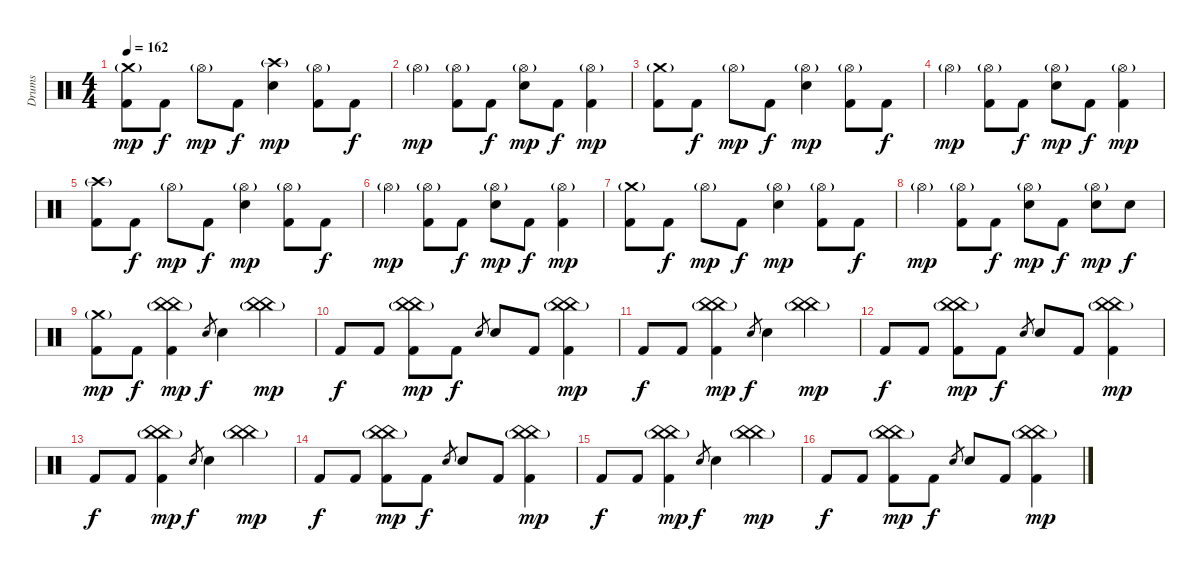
\track ("Drums" "Drums") {instrument percussion}
\staff {score}
\articulation defaults
\ts (4 4)
\tempo 162
\clef neutral
\ks c
("Crash medium (hit)"{g} "Kick (hit) 2").8{dy mp} "Kick (hit) 2".8{dy f} "Hi-Hat (open)"{g}.8{dy mp} "Kick (hit) 2".8{dy f} ("Crash high (hit)"{g} "Snare (hit) 2").4{dy mp} ("Hi-Hat (open)"{g} "Kick (hit) 2").8 "Kick (hit) 2".8{dy f} |
"Hi-Hat (open)"{g}.4{dy mp} ("Hi-Hat (open)"{g} "Kick (hit) 2").8 "Kick (hit) 2".8{dy f} ("Hi-Hat (open)"{g} "Snare (hit) 2").8{dy mp} "Kick (hit) 2".8{dy f} ("Hi-Hat (open)"{g} "Kick (hit) 2").4{dy mp} |
("Crash medium (hit)"{g} "Kick (hit) 2").8 "Kick (hit) 2".8{dy f} "Hi-Hat (open)"{g}.8{dy mp} "Kick (hit) 2".8{dy f} ("Hi-Hat (open)"{g} "Snare (hit) 2").4{dy mp} ("Hi-Hat (open)"{g} "Kick (hit) 2").8 "Kick (hit) 2".8{dy f} |
"Hi-Hat (open)"{g}.4{dy mp} ("Hi-Hat (open)"{g} "Kick (hit) 2").8 "Kick (hit) 2".8{dy f} ("Hi-Hat (open)"{g} "Snare (hit) 2").8{dy mp} "Kick (hit) 2".8{dy f} ("Hi-Hat (open)"{g} "Kick (hit) 2").4{dy mp} |
("Crash high (hit)"{g} "Kick (hit) 2").8 "Kick (hit) 2".8{dy f} "Hi-Hat (open)"{g}.8{dy mp} "Kick (hit) 2".8{dy f} ("Hi-Hat (open)"{g} "Snare (hit) 2").4{dy mp} ("Hi-Hat (open)"{g} "Kick (hit) 2").8 "Kick (hit) 2".8{dy f} |
"Hi-Hat (open)"{g}.4{dy mp} ("Hi-Hat (open)"{g} "Kick (hit) 2").8 "Kick (hit) 2".8{dy f} ("Hi-Hat (open)"{g} "Snare (hit) 2").8{dy mp} "Kick (hit) 2".8{dy f} ("Hi-Hat (open)"{g} "Kick (hit) 2").4{dy mp} |
("Crash medium (hit)"{g} "Kick (hit) 2").8 "Kick (hit) 2".8{dy f} "Hi-Hat (open)"{g}.8{dy mp} "Kick (hit) 2".8{dy f} ("Hi-Hat (open)"{g} "Snare (hit) 2").4{dy mp} ("Hi-Hat (open)"{g} "Kick (hit) 2").8 "Kick (hit) 2".8{dy f} |
"Hi-Hat (open)"{g}.4{dy mp} ("Hi-Hat (open)"{g} "Kick (hit) 2").8 "Kick (hit) 2".8{dy f} ("Hi-Hat (open)"{g} "Snare (hit) 2").8{dy mp} "Kick (hit) 2".8{dy f} ("Hi-Hat (open)"{g} "Snare (hit) 2").8{dy mp} "Snare (hit) 2".8{dy f} |
("Crash medium (hit)"{g} "Kick (hit) 2").8{dy mp} "Kick (hit) 2".8{dy f} ("China (hit)"{g} "China (hit)"{g} "Kick (hit) 2").4{dy mp} "Snare (hit) 2".8{gr dy f} "Snare (hit) 2".4 ("China (hit)"{g} "China (hit)"{g}).4{dy mp} |
"Kick (hit) 2".8{dy f} "Kick (hit) 2".8 ("China (hit)"{g} "China (hit)"{g} "Kick (hit) 2").8{dy mp} "Kick (hit) 2".8{dy f} "Snare (hit) 2".8{gr} "Snare (hit) 2".8 "Kick (hit) 2".8 ("China (hit)"{g} "China (hit)"{g} "Kick (hit) 2").4{dy mp} |
"Kick (hit) 2".8{dy f} "Kick (hit) 2".8 ("China (hit)"{g} "China (hit)"{g} "Kick (hit) 2").4{dy mp} "Snare (hit) 2".8{gr dy f} "Snare (hit) 2".4 ("China (hit)"{g} "China (hit)"{g}).4{dy mp} |
"Kick (hit) 2".8{dy f} "Kick (hit) 2".8 ("China (hit)"{g} "China (hit)"{g} "Kick (hit) 2").8{dy mp} "Kick (hit) 2".8{dy f} "Snare (hit) 2".8{gr} "Snare (hit) 2".8 "Kick (hit) 2".8 ("China (hit)"{g} "China (hit)"{g} "Kick (hit) 2").4{dy mp} |
"Kick (hit) 2".8{dy f} "Kick (hit) 2".8 ("China (hit)"{g} "China (hit)"{g} "Kick (hit) 2").4{dy mp} "Snare (hit) 2".8{gr dy f} "Snare (hit) 2".4 ("China (hit)"{g} "China (hit)"{g}).4{dy mp} |
"Kick (hit) 2".8{dy f} "Kick (hit) 2".8 ("China (hit)"{g} "China (hit)"{g} "Kick (hit) 2").8{dy mp} "Kick (hit) 2".8{dy f} "Snare (hit) 2".8{gr} "Snare (hit) 2".8 "Kick (hit) 2".8 ("China (hit)"{g} "China (hit)"{g} "Kick (hit) 2").4{dy mp} |
"Kick (hit) 2".8{dy f} "Kick (hit) 2".8 ("China (hit)"{g} "China (hit)"{g} "Kick (hit) 2").4{dy mp} "Snare (hit) 2".8{gr dy f} "Snare (hit) 2".4 ("China (hit)"{g} "China (hit)"{g}).4{dy mp} |
"Kick (hit) 2".8{dy f} "Kick (hit) 2".8 ("China (hit)"{g} "China (hit)"{g} "Kick (hit) 2").8{dy mp} "Kick (hit) 2".8{dy f} "Snare (hit) 2".8{gr} "Snare (hit) 2".8 "Kick (hit) 2".8 ("China (hit)"{g} "China (hit)"{g} "Kick (hit) 2").4{dy mp}
